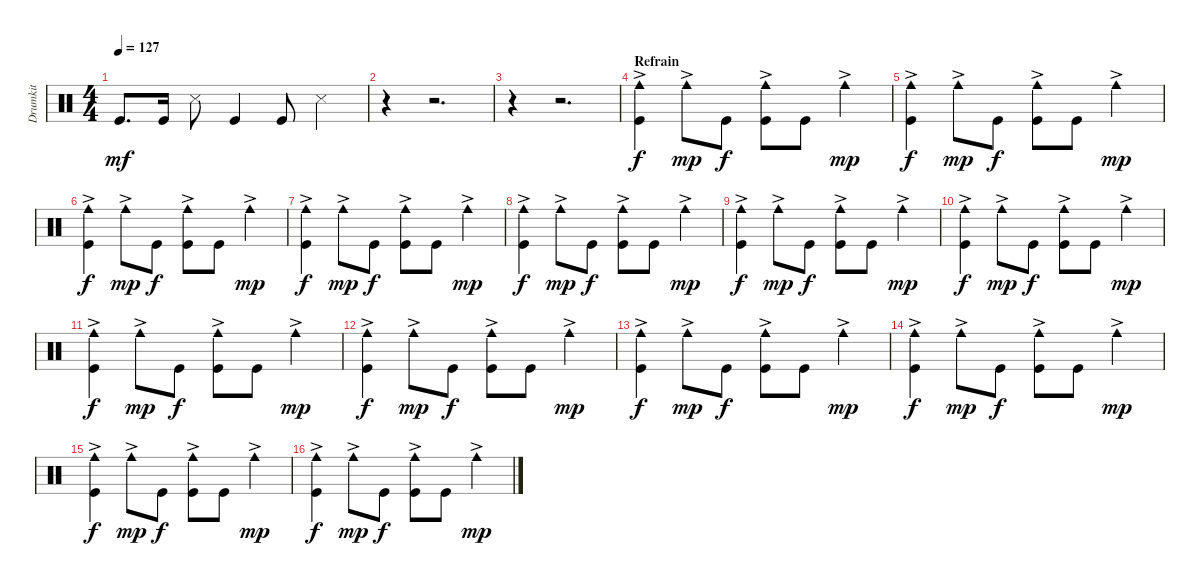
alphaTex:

\track ("Drumkit" "Drumkit") {instrument percussion}
\staff {score}
\articulation defaults
\ts (4 4)
\tempo 127
\clef neutral
\ks c "Kick (hit)".8{d dy mf} "Kick (hit)".16 "Snare (side stick) 3".8 "Kick (hit)".4 "Kick (hit)".8 "Snare (side stick) 3".4
|
r.4 r.2{d} |
r.4 r.2{d} |
\section ("" "Refrain")
("Kick (hit)" "Cowbell medium (hit)"{ac}).4{dy f} "Cowbell medium (hit)"{ac}.8{dy mp} "Kick (hit)".8{dy f} ("Kick (hit)" "Cowbell medium (hit)"{ac}).8 "Kick (hit)".8 "Cowbell medium (hit)"{ac}.4{dy mp} |
("Kick (hit)" "Cowbell medium (hit)"{ac}).4{dy f} "Cowbell medium (hit)"{ac}.8{dy mp} "Kick (hit)".8{dy f} ("Kick (hit)" "Cowbell medium (hit)"{ac}).8 "Kick (hit)".8 "Cowbell medium (hit)"{ac}.4{dy mp} |
("Kick (hit)" "Cowbell medium (hit)"{ac}).4{dy f} "Cowbell medium (hit)"{ac}.8{dy mp} "Kick (hit)".8{dy f} ("Kick (hit)" "Cowbell medium (hit)"{ac}).8 "Kick (hit)".8 "Cowbell medium (hit)"{ac}.4{dy mp} |
("Kick (hit)" "Cowbell medium (hit)"{ac}).4{dy f} "Cowbell medium (hit)"{ac}.8{dy mp} "Kick (hit)".8{dy f} ("Kick (hit)" "Cowbell medium (hit)"{ac}).8 "Kick (hit)".8 "Cowbell medium (hit)"{ac}.4{dy mp} |
("Kick (hit)" "Cowbell medium (hit)"{ac}).4{dy f} "Cowbell medium (hit)"{ac}.8{dy mp} "Kick (hit)".8{dy f} ("Kick (hit)" "Cowbell medium (hit)"{ac}).8 "Kick (hit)".8 "Cowbell medium (hit)"{ac}.4{dy mp} |
("Kick (hit)" "Cowbell medium (hit)"{ac}).4{dy f} "Cowbell medium (hit)"{ac}.8{dy mp} "Kick (hit)".8{dy f} ("Kick (hit)" "Cowbell medium (hit)"{ac}).8 "Kick (hit)".8 "Cowbell medium (hit)"{ac}.4{dy mp} |
("Kick (hit)" "Cowbell medium (hit)"{ac}).4{dy f} "Cowbell medium (hit)"{ac}.8{dy mp} "Kick (hit)".8{dy f} ("Kick (hit)" "Cowbell medium (hit)"{ac}).8 "Kick (hit)".8 "Cowbell medium (hit)"{ac}.4{dy mp} |
("Kick (hit)" "Cowbell medium (hit)"{ac}).4{dy f} "Cowbell medium (hit)"{ac}.8{dy mp} "Kick (hit)".8{dy f} ("Kick (hit)" "Cowbell medium (hit)"{ac}).8 "Kick (hit)".8 "Cowbell medium (hit)"{ac}.4{dy mp} |
("Kick (hit)" "Cowbell medium (hit)"{ac}).4{dy f} "Cowbell medium (hit)"{ac}.8{dy mp} "Kick (hit)".8{dy f} ("Kick (hit)" "Cowbell medium (hit)"{ac}).8 "Kick (hit)".8 "Cowbell medium (hit)"{ac}.4{dy mp} |
("Kick (hit)" "Cowbell medium (hit)"{ac}).4{dy f} "Cowbell medium (hit)"{ac}.8{dy mp} "Kick (hit)".8{dy f} ("Kick (hit)" "Cowbell medium (hit)"{ac}).8 "Kick (hit)".8 "Cowbell medium (hit)"{ac}.4{dy mp} |
("Kick (hit)" "Cowbell medium (hit)"{ac}).4{dy f} "Cowbell medium (hit)"{ac}.8{dy mp} "Kick (hit)".8{dy f} ("Kick (hit)" "Cowbell medium (hit)"{ac}).8 "Kick (hit)".8 "Cowbell medium (hit)"{ac}.4{dy mp} |
("Kick (hit)" "Cowbell medium (hit)"{ac}).4{dy f} "Cowbell medium (hit)"{ac}.8{dy mp} "Kick (hit)".8{dy f} ("Kick (hit)" "Cowbell medium (hit)"{ac}).8 "Kick (hit)".8 "Cowbell medium (hit)"{ac}.4{dy mp} |
("Kick (hit)" "Cowbell medium (hit)"{ac}).4{dy f} "Cowbell medium (hit)"{ac}.8{dy mp} "Kick (hit)".8{dy f} ("Kick (hit)" "Cowbell medium (hit)"{ac}).8 "Kick (hit)".8 "Cowbell medium (hit)"{ac}.4{dy mp}
